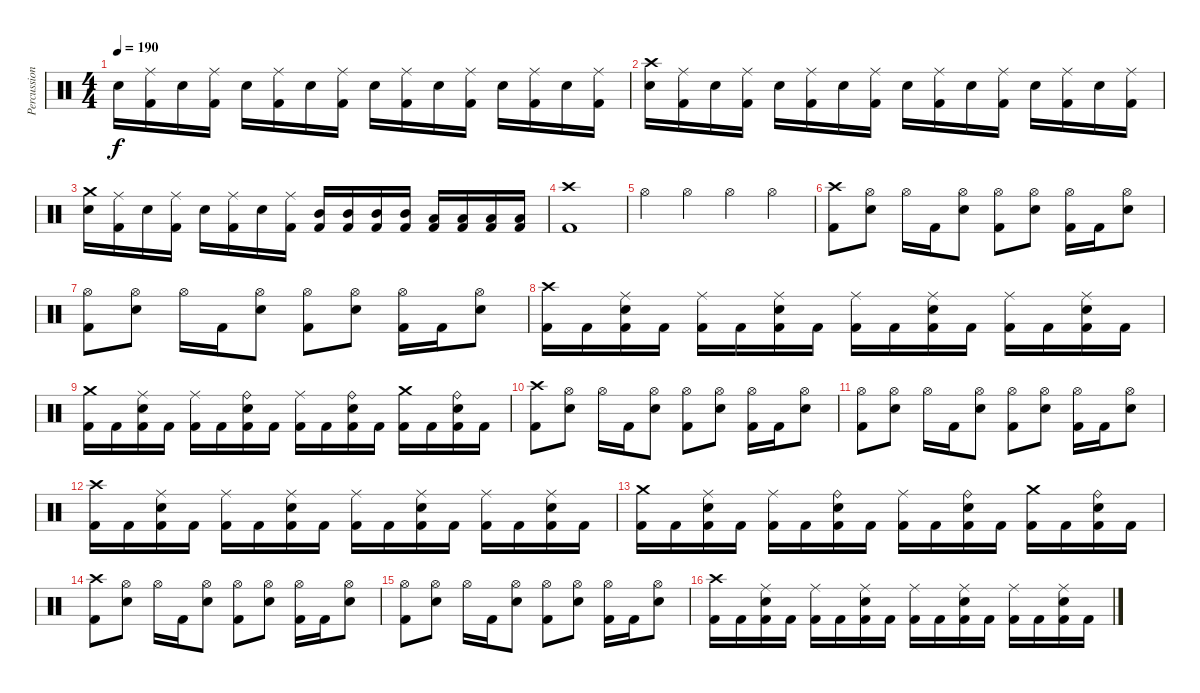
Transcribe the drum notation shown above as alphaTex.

\track ("Percussion" "Percussion") {instrument percussion}
\staff {score}
\articulation defaults
\ts (4 4)
\tempo 190
\clef neutral
\ks c "Snare (hit) 2".16{dy f}
("Ride (middle)" "Kick (hit) 2").16 "Snare (hit) 2".16 ("Ride (middle)" "Kick (hit) 2").16 "Snare (hit) 2".16 ("Ride (middle)" "Kick (hit) 2").16 "Snare (hit) 2".16 ("Ride (middle)" "Kick (hit) 2").16 "Snare (hit) 2".16 ("Ride (middle)" "Kick (hit) 2").16 "Snare (hit) 2".16 ("Ride (middle)" "Kick (hit) 2").16 "Snare (hit) 2".16 ("Ride (middle)" "Kick (hit) 2").16 "Snare (hit) 2".16 ("Ride (middle)" "Kick (hit) 2").16 |
("Crash high (hit)" "Snare (hit) 2").16 ("Ride (middle)" "Kick (hit) 2").16 "Snare (hit) 2".16 ("Ride (middle)" "Kick (hit) 2").16 "Snare (hit) 2".16 ("Ride (middle)" "Kick (hit) 2").16 "Snare (hit) 2".16 ("Ride (middle)" "Kick (hit) 2").16 "Snare (hit) 2".16 ("Ride (middle)" "Kick (hit) 2").16 "Snare (hit) 2".16 ("Ride (middle)" "Kick (hit) 2").16 "Snare (hit) 2".16 ("Ride (middle)" "Kick (hit) 2").16 "Snare (hit) 2".16 ("Ride (middle)" "Kick (hit) 2").16 |
("Crash medium (hit)" "Snare (hit) 2").16 ("Ride (middle)" "Kick (hit) 2").16 "Snare (hit) 2".16 ("Ride (middle)" "Kick (hit) 2").16 "Snare (hit) 2".16 ("Ride (middle)" "Kick (hit) 2").16 "Snare (hit) 2".16 ("Ride (middle)" "Kick (hit) 2").16 ("Mid Tom (hit)" "Kick (hit) 2").16 ("Mid Tom (hit)" "Kick (hit) 2").16 ("Mid Tom (hit)" "Kick (hit) 2").16 ("Mid Tom (hit)" "Kick (hit) 2").16 ("Low Tom (hit)" "Kick (hit) 2").16 ("Low Tom (hit)" "Kick (hit) 2").16 ("Low Tom (hit)" "Kick (hit) 2").16 ("Low Tom (hit)" "Kick (hit) 2").16 |
("Crash high (hit)" "Kick (hit) 2").1 |
"Hi-Hat (open)".4 "Hi-Hat (open)".4 "Hi-Hat (open)".4 "Hi-Hat (open)".4 |
("Crash high (hit)" "Kick (hit) 2").8 ("Hi-Hat (open)" "Snare (hit) 2").8 "Hi-Hat (open)".16 "Kick (hit) 2".16 ("Hi-Hat (open)" "Snare (hit) 2").8 ("Hi-Hat (open)" "Kick (hit) 2").8 ("Hi-Hat (open)" "Snare (hit) 2").8 ("Hi-Hat (open)" "Kick (hit) 2").16 "Kick (hit) 2".16 ("Hi-Hat (open)" "Snare (hit) 2").8 |
("Hi-Hat (open)" "Kick (hit) 2").8 ("Hi-Hat (open)" "Snare (hit) 2").8 "Hi-Hat (open)".16 "Kick (hit) 2".16 ("Hi-Hat (open)" "Snare (hit) 2").8 ("Hi-Hat (open)" "Kick (hit) 2").8 ("Hi-Hat (open)" "Snare (hit) 2").8 ("Hi-Hat (open)" "Kick (hit) 2").16 "Kick (hit) 2".16 ("Hi-Hat (open)" "Snare (hit) 2").8 |
("Crash high (hit)" "Kick (hit) 2").16 "Kick (hit) 2".16 ("Ride (middle)" "Snare (hit) 2" "Kick (hit) 2").16 "Kick (hit) 2".16 ("Ride (middle)" "Kick (hit) 2").16 "Kick (hit) 2".16 ("Ride (middle)" "Snare (hit) 2" "Kick (hit) 2").16 "Kick (hit) 2".16 ("Ride (middle)" "Kick (hit) 2").16 "Kick (hit) 2".16 ("Ride (middle)" "Snare (hit) 2" "Kick (hit) 2").16 "Kick (hit) 2".16 ("Ride (middle)" "Kick (hit) 2").16 "Kick (hit) 2".16 ("Ride (middle)" "Snare (hit) 2" "Kick (hit) 2").16 "Kick (hit) 2".16 |
("Crash medium (hit)" "Kick (hit) 2").16 "Kick (hit) 2".16 ("Ride (middle)" "Snare (hit) 2" "Kick (hit) 2").16 "Kick (hit) 2".16 ("Ride (middle)" "Kick (hit) 2").16 "Kick (hit) 2".16 ("Ride (bell)" "Snare (hit) 2" "Kick (hit) 2").16 "Kick (hit) 2".16 ("Ride (middle)" "Kick (hit) 2").16 "Kick (hit) 2".16 ("Ride (bell)" "Snare (hit) 2" "Kick (hit) 2").16 "Kick (hit) 2".16 ("Crash medium (hit)" "Kick (hit) 2").16 "Kick (hit) 2".16 ("Ride (bell)" "Snare (hit) 2" "Kick (hit) 2").16 "Kick (hit) 2".16 |
("Crash high (hit)" "Kick (hit) 2").8 ("Hi-Hat (open)" "Snare (hit) 2").8 "Hi-Hat (open)".16 "Kick (hit) 2".16 ("Hi-Hat (open)" "Snare (hit) 2").8 ("Hi-Hat (open)" "Kick (hit) 2").8 ("Hi-Hat (open)" "Snare (hit) 2").8 ("Hi-Hat (open)" "Kick (hit) 2").16 "Kick (hit) 2".16 ("Hi-Hat (open)" "Snare (hit) 2").8 |
("Hi-Hat (open)" "Kick (hit) 2").8 ("Hi-Hat (open)" "Snare (hit) 2").8 "Hi-Hat (open)".16 "Kick (hit) 2".16 ("Hi-Hat (open)" "Snare (hit) 2").8 ("Hi-Hat (open)" "Kick (hit) 2").8 ("Hi-Hat (open)" "Snare (hit) 2").8 ("Hi-Hat (open)" "Kick (hit) 2").16 "Kick (hit) 2".16 ("Hi-Hat (open)" "Snare (hit) 2").8 |
("Crash high (hit)" "Kick (hit) 2").16 "Kick (hit) 2".16 ("Ride (middle)" "Snare (hit) 2" "Kick (hit) 2").16 "Kick (hit) 2".16 ("Ride (middle)" "Kick (hit) 2").16 "Kick (hit) 2".16 ("Ride (middle)" "Snare (hit) 2" "Kick (hit) 2").16 "Kick (hit) 2".16 ("Ride (middle)" "Kick (hit) 2").16 "Kick (hit) 2".16 ("Ride (middle)" "Snare (hit) 2" "Kick (hit) 2").16 "Kick (hit) 2".16 ("Ride (middle)" "Kick (hit) 2").16 "Kick (hit) 2".16 ("Ride (middle)" "Snare (hit) 2" "Kick (hit) 2").16 "Kick (hit) 2".16 |
("Crash medium (hit)" "Kick (hit) 2").16 "Kick (hit) 2".16 ("Ride (middle)" "Snare (hit) 2" "Kick (hit) 2").16 "Kick (hit) 2".16 ("Ride (middle)" "Kick (hit) 2").16 "Kick (hit) 2".16 ("Ride (bell)" "Snare (hit) 2" "Kick (hit) 2").16 "Kick (hit) 2".16 ("Ride (middle)" "Kick (hit) 2").16 "Kick (hit) 2".16 ("Ride (bell)" "Snare (hit) 2" "Kick (hit) 2").16 "Kick (hit) 2".16 ("Crash medium (hit)" "Kick (hit) 2").16 "Kick (hit) 2".16 ("Ride (bell)" "Snare (hit) 2" "Kick (hit) 2").16 "Kick (hit) 2".16 |
("Crash high (hit)" "Kick (hit) 2").8 ("Hi-Hat (open)" "Snare (hit) 2").8 "Hi-Hat (open)".16 "Kick (hit) 2".16 ("Hi-Hat (open)" "Snare (hit) 2").8 ("Hi-Hat (open)" "Kick (hit) 2").8 ("Hi-Hat (open)" "Snare (hit) 2").8 ("Hi-Hat (open)" "Kick (hit) 2").16 "Kick (hit) 2".16 ("Hi-Hat (open)" "Snare (hit) 2").8 |
("Hi-Hat (open)" "Kick (hit) 2").8 ("Hi-Hat (open)" "Snare (hit) 2").8 "Hi-Hat (open)".16 "Kick (hit) 2".16 ("Hi-Hat (open)" "Snare (hit) 2").8 ("Hi-Hat (open)" "Kick (hit) 2").8 ("Hi-Hat (open)" "Snare (hit) 2").8 ("Hi-Hat (open)" "Kick (hit) 2").16 "Kick (hit) 2".16 ("Hi-Hat (open)" "Snare (hit) 2").8 |
("Crash high (hit)" "Kick (hit) 2").16 "Kick (hit) 2".16 ("Ride (middle)" "Snare (hit) 2" "Kick (hit) 2").16 "Kick (hit) 2".16 ("Ride (middle)" "Kick (hit) 2").16 "Kick (hit) 2".16 ("Ride (middle)" "Snare (hit) 2" "Kick (hit) 2").16 "Kick (hit) 2".16 ("Ride (middle)" "Kick (hit) 2").16 "Kick (hit) 2".16 ("Ride (middle)" "Snare (hit) 2" "Kick (hit) 2").16 "Kick (hit) 2".16 ("Ride (middle)" "Kick (hit) 2").16 "Kick (hit) 2".16 ("Ride (middle)" "Snare (hit) 2" "Kick (hit) 2").16 "Kick (hit) 2".16
